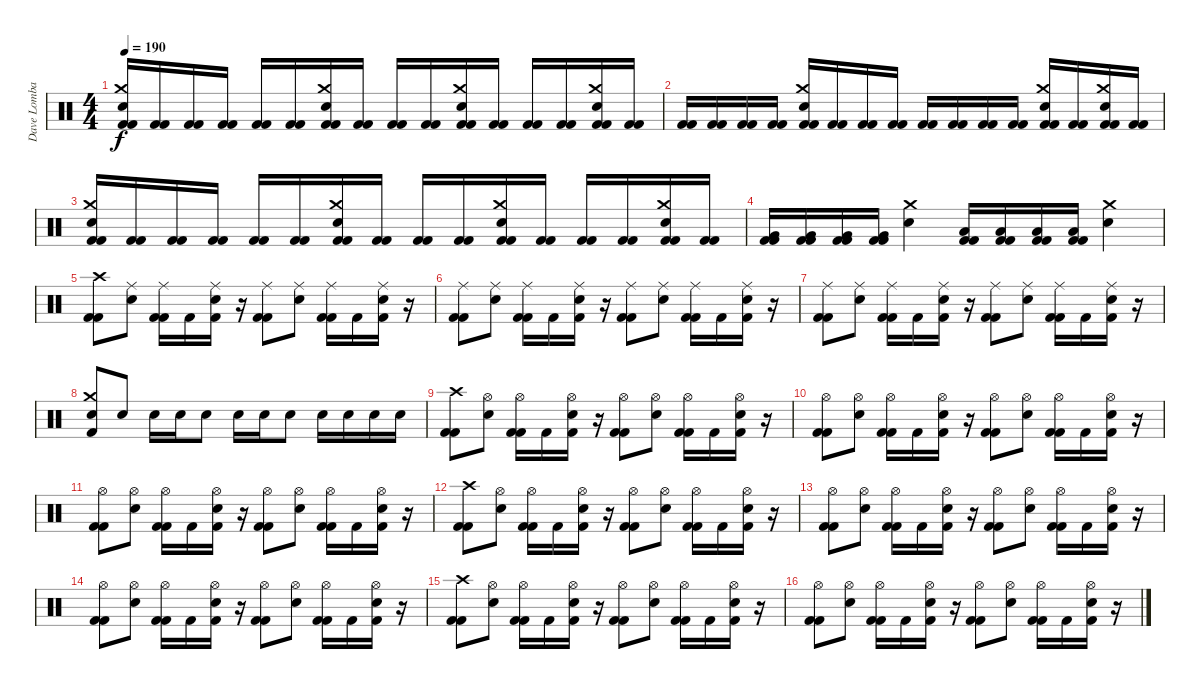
\track ("Dave Lombardo" "Dave Lomba") {instrument percussion}
\staff {score}
\articulation defaults
\ts (4 4)
\tempo 190
\clef neutral
\ks c
("Kick (hit) 2" "Crash medium (hit)" "Electric Snare (hit)" "Kick (hit) 2").16{dy f} ("Kick (hit) 2" "Kick (hit) 2").16 ("Kick (hit) 2" "Kick (hit) 2").16 ("Kick (hit) 2" "Kick (hit) 2").16 ("Kick (hit) 2" "Kick (hit) 2").16 ("Kick (hit) 2" "Kick (hit) 2").16 ("Kick (hit) 2" "Crash medium (hit)" "Electric Snare (hit)" "Kick (hit) 2").16 ("Kick (hit) 2" "Kick (hit) 2").16 ("Kick (hit) 2" "Kick (hit) 2").16 ("Kick (hit) 2" "Kick (hit) 2").16 ("Kick (hit) 2" "Crash medium (hit)" "Electric Snare (hit)" "Kick (hit) 2").16 ("Kick (hit) 2" "Kick (hit) 2").16 ("Kick (hit) 2" "Kick (hit) 2").16 ("Kick (hit) 2" "Kick (hit) 2").16 ("Kick (hit) 2" "Crash medium (hit)" "Electric Snare (hit)" "Kick (hit) 2").16 ("Kick (hit) 2" "Kick (hit) 2").16 |
("Kick (hit) 2" "Kick (hit) 2").16 ("Kick (hit) 2" "Kick (hit) 2").16 ("Kick (hit) 2" "Kick (hit) 2").16 ("Kick (hit) 2" "Kick (hit) 2").16 ("Kick (hit) 2" "Crash medium (hit)" "Electric Snare (hit)" "Kick (hit) 2").16 ("Kick (hit) 2" "Kick (hit) 2").16 ("Kick (hit) 2" "Kick (hit) 2").16 ("Kick (hit) 2" "Kick (hit) 2").16 ("Kick (hit) 2" "Kick (hit) 2").16 ("Kick (hit) 2" "Kick (hit) 2").16 ("Kick (hit) 2" "Kick (hit) 2").16 ("Kick (hit) 2" "Kick (hit) 2").16 ("Kick (hit) 2" "Crash medium (hit)" "Electric Snare (hit)" "Kick (hit) 2").16 ("Kick (hit) 2" "Kick (hit) 2").16 ("Kick (hit) 2" "Crash medium (hit)" "Electric Snare (hit)" "Kick (hit) 2").16 ("Kick (hit) 2" "Kick (hit) 2").16 |
("Kick (hit) 2" "Crash medium (hit)" "Electric Snare (hit)" "Kick (hit) 2").16 ("Kick (hit) 2" "Kick (hit) 2").16 ("Kick (hit) 2" "Kick (hit) 2").16 ("Kick (hit) 2" "Kick (hit) 2").16 ("Kick (hit) 2" "Kick (hit) 2").16 ("Kick (hit) 2" "Kick (hit) 2").16 ("Kick (hit) 2" "Crash medium (hit)" "Electric Snare (hit)" "Kick (hit) 2").16 ("Kick (hit) 2" "Kick (hit) 2").16 ("Kick (hit) 2" "Kick (hit) 2").16 ("Kick (hit) 2" "Kick (hit) 2").16 ("Kick (hit) 2" "Crash medium (hit)" "Electric Snare (hit)" "Kick (hit) 2").16 ("Kick (hit) 2" "Kick (hit) 2").16 ("Kick (hit) 2" "Kick (hit) 2").16 ("Kick (hit) 2" "Kick (hit) 2").16 ("Kick (hit) 2" "Crash medium (hit)" "Electric Snare (hit)" "Kick (hit) 2").16 ("Kick (hit) 2" "Kick (hit) 2").16 |
("Kick (hit) 2" "Very Low Tom (hit)" "Kick (hit) 2").16 ("Kick (hit) 2" "Very Low Tom (hit)" "Kick (hit) 2").16 ("Kick (hit) 2" "Very Low Tom (hit)" "Kick (hit) 2").16 ("Kick (hit) 2" "Very Low Tom (hit)" "Kick (hit) 2").16 ("Crash medium (hit)" "Electric Snare (hit)").4 ("Kick (hit) 2" "Low Floor Tom (hit)" "Kick (hit) 2").16 ("Kick (hit) 2" "Low Floor Tom (hit)" "Kick (hit) 2").16 ("Kick (hit) 2" "Low Floor Tom (hit)" "Kick (hit) 2").16 ("Kick (hit) 2" "Low Floor Tom (hit)" "Kick (hit) 2").16 ("Crash medium (hit)" "Electric Snare (hit)").4 |
("Kick (hit) 2" "Crash high (hit)" "Kick (hit) 2").8 ("Ride (middle)" "Electric Snare (hit)").8 ("Kick (hit) 2" "Ride (middle)" "Kick (hit) 2").16 "Kick (hit) 2".16 ("Ride (middle)" "Electric Snare (hit)" "Kick (hit) 2").16 r.16 ("Kick (hit) 2" "Ride (middle)" "Kick (hit) 2").8 ("Ride (middle)" "Electric Snare (hit)").8 ("Kick (hit) 2" "Ride (middle)" "Kick (hit) 2").16 "Kick (hit) 2".16 ("Ride (middle)" "Electric Snare (hit)" "Kick (hit) 2").16 r.16 |
("Kick (hit) 2" "Ride (middle)" "Kick (hit) 2").8 ("Ride (middle)" "Electric Snare (hit)").8 ("Kick (hit) 2" "Ride (middle)" "Kick (hit) 2").16 "Kick (hit) 2".16 ("Ride (middle)" "Electric Snare (hit)" "Kick (hit) 2").16 r.16 ("Kick (hit) 2" "Ride (middle)" "Kick (hit) 2").8 ("Ride (middle)" "Electric Snare (hit)").8 ("Kick (hit) 2" "Ride (middle)" "Kick (hit) 2").16 "Kick (hit) 2".16 ("Ride (middle)" "Electric Snare (hit)" "Kick (hit) 2").16 r.16 |
("Kick (hit) 2" "Ride (middle)" "Kick (hit) 2").8 ("Ride (middle)" "Electric Snare (hit)").8 ("Kick (hit) 2" "Ride (middle)" "Kick (hit) 2").16 "Kick (hit) 2".16 ("Ride (middle)" "Electric Snare (hit)" "Kick (hit) 2").16 r.16 ("Kick (hit) 2" "Ride (middle)" "Kick (hit) 2").8 ("Ride (middle)" "Electric Snare (hit)").8 ("Kick (hit) 2" "Ride (middle)" "Kick (hit) 2").16 "Kick (hit) 2".16 ("Ride (middle)" "Electric Snare (hit)" "Kick (hit) 2").16 r.16 |
("Crash medium (hit)" "Electric Snare (hit)" "Kick (hit) 2").8 "Electric Snare (hit)".8 "Electric Snare (hit)".16 "Electric Snare (hit)".16 "Electric Snare (hit)".8 "Electric Snare (hit)".16 "Electric Snare (hit)".16 "Electric Snare (hit)".8 "Electric Snare (hit)".16 "Electric Snare (hit)".16 "Electric Snare (hit)".16 "Electric Snare (hit)".16 |
("Kick (hit) 2" "Crash high (hit)" "Kick (hit) 2").8 ("Hi-Hat (open)" "Electric Snare (hit)").8 ("Kick (hit) 2" "Hi-Hat (open)" "Kick (hit) 2").16 "Kick (hit) 2".16 ("Hi-Hat (open)" "Electric Snare (hit)" "Kick (hit) 2").16 r.16 ("Kick (hit) 2" "Hi-Hat (open)" "Kick (hit) 2").8 ("Hi-Hat (open)" "Electric Snare (hit)").8 ("Kick (hit) 2" "Hi-Hat (open)" "Kick (hit) 2").16 "Kick (hit) 2".16 ("Hi-Hat (open)" "Electric Snare (hit)" "Kick (hit) 2").16 r.16 |
("Kick (hit) 2" "Hi-Hat (open)" "Kick (hit) 2").8 ("Hi-Hat (open)" "Electric Snare (hit)").8 ("Kick (hit) 2" "Hi-Hat (open)" "Kick (hit) 2").16 "Kick (hit) 2".16 ("Hi-Hat (open)" "Electric Snare (hit)" "Kick (hit) 2").16 r.16 ("Kick (hit) 2" "Hi-Hat (open)" "Kick (hit) 2").8 ("Hi-Hat (open)" "Electric Snare (hit)").8 ("Kick (hit) 2" "Hi-Hat (open)" "Kick (hit) 2").16 "Kick (hit) 2".16 ("Hi-Hat (open)" "Electric Snare (hit)" "Kick (hit) 2").16 r.16 |
("Kick (hit) 2" "Hi-Hat (open)" "Kick (hit) 2").8 ("Hi-Hat (open)" "Electric Snare (hit)").8 ("Kick (hit) 2" "Hi-Hat (open)" "Kick (hit) 2").16 "Kick (hit) 2".16 ("Hi-Hat (open)" "Electric Snare (hit)" "Kick (hit) 2").16 r.16 ("Kick (hit) 2" "Hi-Hat (open)" "Kick (hit) 2").8 ("Hi-Hat (open)" "Electric Snare (hit)").8 ("Kick (hit) 2" "Hi-Hat (open)" "Kick (hit) 2").16 "Kick (hit) 2".16 ("Hi-Hat (open)" "Electric Snare (hit)" "Kick (hit) 2").16 r.16 |
("Kick (hit) 2" "Crash high (hit)" "Kick (hit) 2").8 ("Hi-Hat (open)" "Electric Snare (hit)").8 ("Kick (hit) 2" "Hi-Hat (open)" "Kick (hit) 2").16 "Kick (hit) 2".16 ("Hi-Hat (open)" "Electric Snare (hit)" "Kick (hit) 2").16 r.16 ("Kick (hit) 2" "Hi-Hat (open)" "Kick (hit) 2").8 ("Hi-Hat (open)" "Electric Snare (hit)").8 ("Kick (hit) 2" "Hi-Hat (open)" "Kick (hit) 2").16 "Kick (hit) 2".16 ("Hi-Hat (open)" "Electric Snare (hit)" "Kick (hit) 2").16 r.16 |
("Kick (hit) 2" "Hi-Hat (open)" "Kick (hit) 2").8 ("Hi-Hat (open)" "Electric Snare (hit)").8 ("Kick (hit) 2" "Hi-Hat (open)" "Kick (hit) 2").16 "Kick (hit) 2".16 ("Hi-Hat (open)" "Electric Snare (hit)" "Kick (hit) 2").16 r.16 ("Kick (hit) 2" "Hi-Hat (open)" "Kick (hit) 2").8 ("Hi-Hat (open)" "Electric Snare (hit)").8 ("Kick (hit) 2" "Hi-Hat (open)" "Kick (hit) 2").16 "Kick (hit) 2".16 ("Hi-Hat (open)" "Electric Snare (hit)" "Kick (hit) 2").16 r.16 |
("Kick (hit) 2" "Hi-Hat (open)" "Kick (hit) 2").8 ("Hi-Hat (open)" "Electric Snare (hit)").8 ("Kick (hit) 2" "Hi-Hat (open)" "Kick (hit) 2").16 "Kick (hit) 2".16 ("Hi-Hat (open)" "Electric Snare (hit)" "Kick (hit) 2").16 r.16 ("Kick (hit) 2" "Hi-Hat (open)" "Kick (hit) 2").8 ("Hi-Hat (open)" "Electric Snare (hit)").8 ("Kick (hit) 2" "Hi-Hat (open)" "Kick (hit) 2").16 "Kick (hit) 2".16 ("Hi-Hat (open)" "Electric Snare (hit)" "Kick (hit) 2").16 r.16 |
("Kick (hit) 2" "Crash high (hit)" "Kick (hit) 2").8 ("Hi-Hat (open)" "Electric Snare (hit)").8 ("Kick (hit) 2" "Hi-Hat (open)" "Kick (hit) 2").16 "Kick (hit) 2".16 ("Hi-Hat (open)" "Electric Snare (hit)" "Kick (hit) 2").16 r.16 ("Kick (hit) 2" "Hi-Hat (open)" "Kick (hit) 2").8 ("Hi-Hat (open)" "Electric Snare (hit)").8 ("Kick (hit) 2" "Hi-Hat (open)" "Kick (hit) 2").16 "Kick (hit) 2".16 ("Hi-Hat (open)" "Electric Snare (hit)" "Kick (hit) 2").16 r.16 |
("Kick (hit) 2" "Hi-Hat (open)" "Kick (hit) 2").8 ("Hi-Hat (open)" "Electric Snare (hit)").8 ("Kick (hit) 2" "Hi-Hat (open)" "Kick (hit) 2").16 "Kick (hit) 2".16 ("Hi-Hat (open)" "Electric Snare (hit)" "Kick (hit) 2").16 r.16 ("Kick (hit) 2" "Hi-Hat (open)" "Kick (hit) 2").8 ("Hi-Hat (open)" "Electric Snare (hit)").8 ("Kick (hit) 2" "Hi-Hat (open)" "Kick (hit) 2").16 "Kick (hit) 2".16 ("Hi-Hat (open)" "Electric Snare (hit)" "Kick (hit) 2").16 r.16
